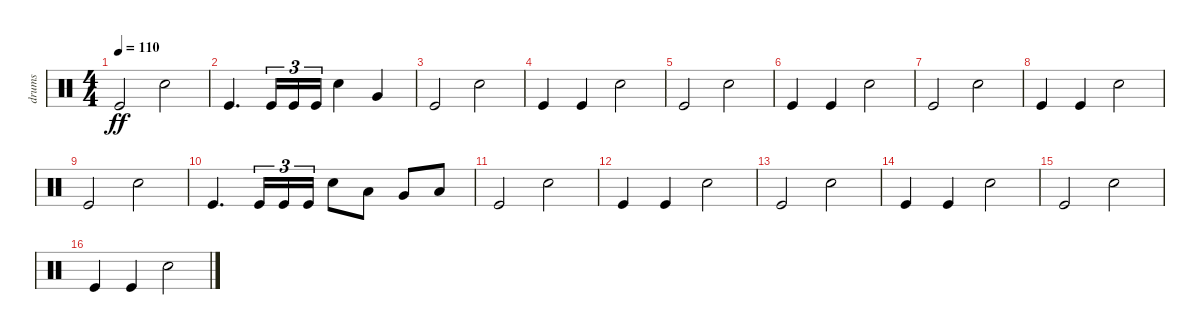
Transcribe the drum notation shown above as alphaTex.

\track ("drums" "drums") {instrument percussion}
\staff {score}
\articulation defaults
\ts (4 4)
\tempo 110
\clef neutral
\ks c "Kick (hit)".2{dy ff} "Electric Snare (hit)".2
|
"Kick (hit)".4{d} "Kick (hit)".16{tu (3 2)} "Kick (hit)".16{tu (3 2)} "Kick (hit)".16{tu (3 2)} "Electric Snare (hit)".4 "Very Low Tom (hit)".4 |
"Kick (hit)".2 "Electric Snare (hit)".2 |
"Kick (hit)".4 "Kick (hit)".4 "Electric Snare (hit)".2 |
"Kick (hit)".2 "Electric Snare (hit)".2 |
"Kick (hit)".4 "Kick (hit)".4 "Electric Snare (hit)".2 |
"Kick (hit)".2 "Electric Snare (hit)".2 |
"Kick (hit)".4 "Kick (hit)".4 "Electric Snare (hit)".2 |
"Kick (hit)".2 "Electric Snare (hit)".2 |
"Kick (hit)".4{d} "Kick (hit)".16{tu (3 2)} "Kick (hit)".16{tu (3 2)} "Kick (hit)".16{tu (3 2)} "Electric Snare (hit)".8 "Low Tom (hit)".8 "Very Low Tom (hit)".8 "Low Floor Tom (hit)".8 |
"Kick (hit)".2 "Electric Snare (hit)".2 |
"Kick (hit)".4 "Kick (hit)".4 "Electric Snare (hit)".2 |
"Kick (hit)".2 "Electric Snare (hit)".2 |
"Kick (hit)".4 "Kick (hit)".4 "Electric Snare (hit)".2 |
"Kick (hit)".2 "Electric Snare (hit)".2 |
"Kick (hit)".4 "Kick (hit)".4 "Electric Snare (hit)".2
